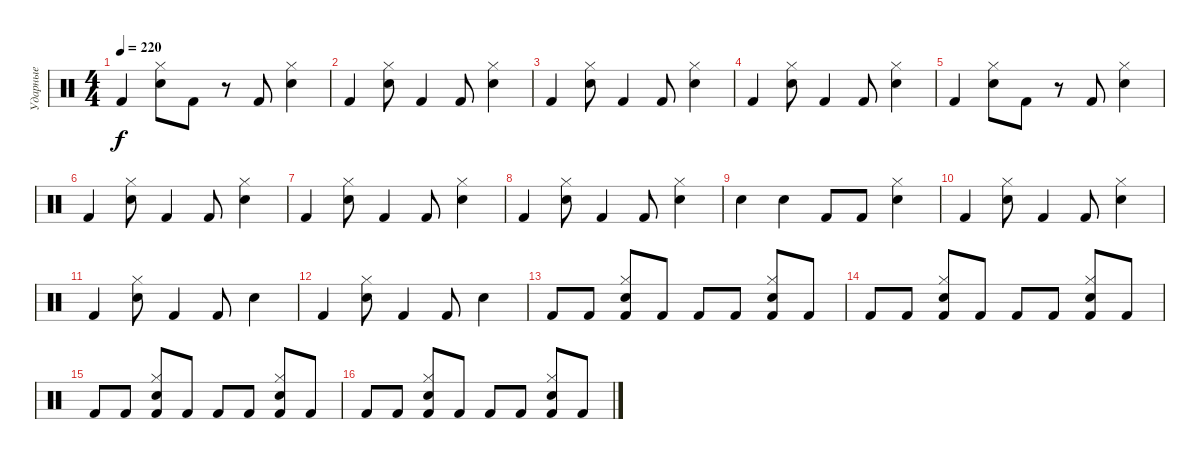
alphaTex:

\track ("Ударные" "Ударные") {instrument percussion}
\staff {score}
\articulation defaults
\ts (4 4)
\tempo 220
\clef neutral
\ks c "Kick (hit) 2".4{dy f}
("Hi-Hat (closed)" "Snare (hit) 2").8 "Kick (hit) 2".8 r.8 "Kick (hit) 2".8 ("Hi-Hat (closed)" "Snare (hit) 2").4 |
"Kick (hit) 2".4 ("Hi-Hat (closed)" "Snare (hit) 2").8 "Kick (hit) 2".4 "Kick (hit) 2".8 ("Hi-Hat (closed)" "Snare (hit) 2").4 |
"Kick (hit) 2".4 ("Hi-Hat (closed)" "Snare (hit) 2").8 "Kick (hit) 2".4 "Kick (hit) 2".8 ("Hi-Hat (closed)" "Snare (hit) 2").4 |
"Kick (hit) 2".4 ("Hi-Hat (closed)" "Snare (hit) 2").8 "Kick (hit) 2".4 "Kick (hit) 2".8 ("Hi-Hat (closed)" "Snare (hit) 2").4 |
"Kick (hit) 2".4 ("Hi-Hat (closed)" "Snare (hit) 2").8 "Kick (hit) 2".8 r.8 "Kick (hit) 2".8 ("Hi-Hat (closed)" "Snare (hit) 2").4 |
"Kick (hit) 2".4 ("Hi-Hat (closed)" "Snare (hit) 2").8 "Kick (hit) 2".4 "Kick (hit) 2".8 ("Hi-Hat (closed)" "Snare (hit) 2").4 |
"Kick (hit) 2".4 ("Hi-Hat (closed)" "Snare (hit) 2").8 "Kick (hit) 2".4 "Kick (hit) 2".8 ("Hi-Hat (closed)" "Snare (hit) 2").4 |
"Kick (hit) 2".4 ("Hi-Hat (closed)" "Snare (hit) 2").8 "Kick (hit) 2".4 "Kick (hit) 2".8 ("Hi-Hat (closed)" "Snare (hit) 2").4 |
"Snare (hit) 2".4 "Snare (hit) 2".4 "Kick (hit) 2".8 "Kick (hit) 2".8 ("Hi-Hat (closed)" "Snare (hit) 2").4 |
"Kick (hit) 2".4 ("Hi-Hat (closed)" "Snare (hit) 2").8 "Kick (hit) 2".4 "Kick (hit) 2".8 ("Hi-Hat (closed)" "Snare (hit) 2").4 |
"Kick (hit) 2".4 ("Hi-Hat (closed)" "Snare (hit) 2").8 "Kick (hit) 2".4 "Kick (hit) 2".8 "Snare (hit) 2".4 |
"Kick (hit) 2".4 ("Hi-Hat (closed)" "Snare (hit) 2").8 "Kick (hit) 2".4 "Kick (hit) 2".8 "Snare (hit) 2".4 |
"Kick (hit) 2".8 "Kick (hit) 2".8 ("Hi-Hat (closed)" "Snare (hit) 2" "Kick (hit) 2").8 "Kick (hit) 2".8 "Kick (hit) 2".8 "Kick (hit) 2".8 ("Hi-Hat (closed)" "Snare (hit) 2" "Kick (hit) 2").8 "Kick (hit) 2".8 |
"Kick (hit) 2".8 "Kick (hit) 2".8 ("Hi-Hat (closed)" "Snare (hit) 2" "Kick (hit) 2").8 "Kick (hit) 2".8 "Kick (hit) 2".8 "Kick (hit) 2".8 ("Hi-Hat (closed)" "Snare (hit) 2" "Kick (hit) 2").8 "Kick (hit) 2".8 |
"Kick (hit) 2".8 "Kick (hit) 2".8 ("Hi-Hat (closed)" "Snare (hit) 2" "Kick (hit) 2").8 "Kick (hit) 2".8 "Kick (hit) 2".8 "Kick (hit) 2".8 ("Hi-Hat (closed)" "Snare (hit) 2" "Kick (hit) 2").8 "Kick (hit) 2".8 |
"Kick (hit) 2".8 "Kick (hit) 2".8 ("Hi-Hat (closed)" "Snare (hit) 2" "Kick (hit) 2").8 "Kick (hit) 2".8 "Kick (hit) 2".8 "Kick (hit) 2".8 ("Hi-Hat (closed)" "Snare (hit) 2" "Kick (hit) 2").8 "Kick (hit) 2".8
